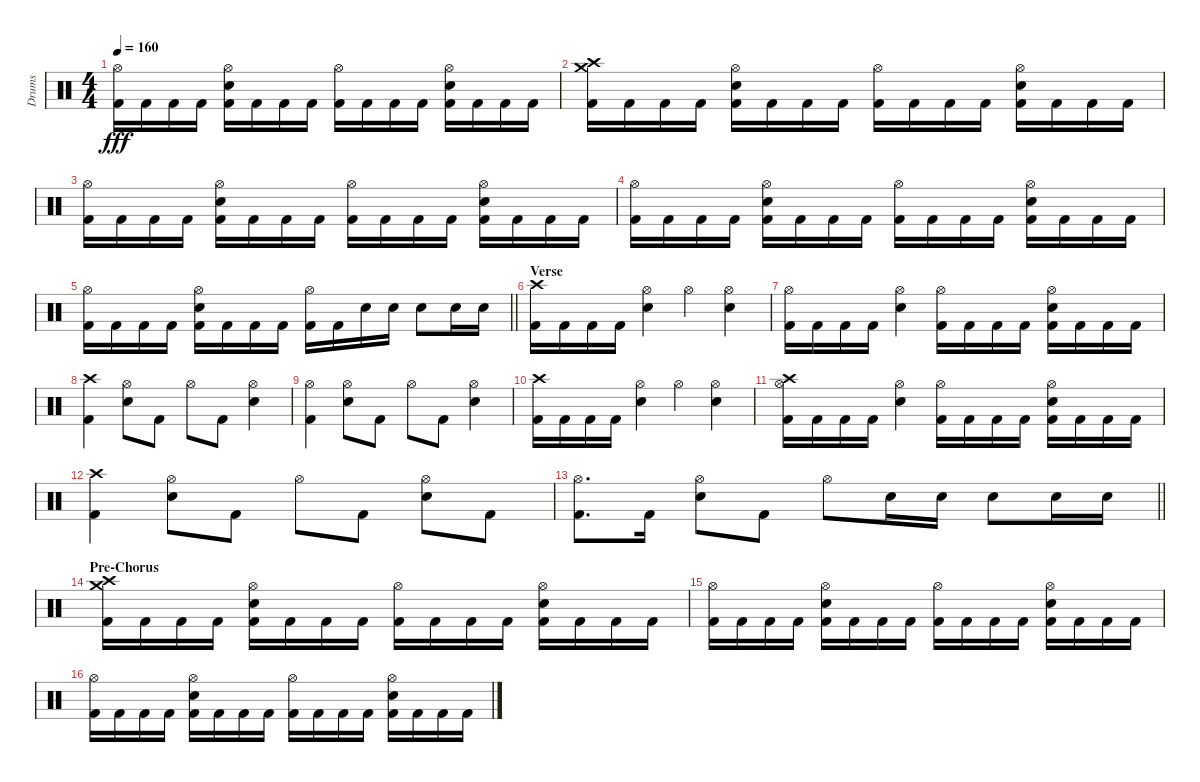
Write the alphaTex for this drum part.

\track ("Drums" "Drums") {instrument percussion}
\staff {score}
\articulation defaults
\ts (4 4)
\tempo 160
\clef neutral
\ks c
("Hi-Hat (open)" "Kick (hit) 2").16{dy fff} "Kick (hit) 2".16 "Kick (hit) 2".16 "Kick (hit) 2".16 ("Snare (hit) 2" "Hi-Hat (open)" "Kick (hit) 2").16 "Kick (hit) 2".16 "Kick (hit) 2".16 "Kick (hit) 2".16 ("Hi-Hat (open)" "Kick (hit) 2").16 "Kick (hit) 2".16 "Kick (hit) 2".16 "Kick (hit) 2".16 ("Snare (hit) 2" "Hi-Hat (open)" "Kick (hit) 2").16 "Kick (hit) 2".16 "Kick (hit) 2".16 "Kick (hit) 2".16 |
("Crash high (hit)" "Crash medium (hit)" "Kick (hit) 2").16 "Kick (hit) 2".16 "Kick (hit) 2".16 "Kick (hit) 2".16 ("Snare (hit) 2" "Hi-Hat (open)" "Kick (hit) 2").16 "Kick (hit) 2".16 "Kick (hit) 2".16 "Kick (hit) 2".16 ("Hi-Hat (open)" "Kick (hit) 2").16 "Kick (hit) 2".16 "Kick (hit) 2".16 "Kick (hit) 2".16 ("Snare (hit) 2" "Hi-Hat (open)" "Kick (hit) 2").16 "Kick (hit) 2".16 "Kick (hit) 2".16 "Kick (hit) 2".16 |
("Hi-Hat (open)" "Kick (hit) 2").16 "Kick (hit) 2".16 "Kick (hit) 2".16 "Kick (hit) 2".16 ("Snare (hit) 2" "Hi-Hat (open)" "Kick (hit) 2").16 "Kick (hit) 2".16 "Kick (hit) 2".16 "Kick (hit) 2".16 ("Hi-Hat (open)" "Kick (hit) 2").16 "Kick (hit) 2".16 "Kick (hit) 2".16 "Kick (hit) 2".16 ("Snare (hit) 2" "Hi-Hat (open)" "Kick (hit) 2").16 "Kick (hit) 2".16 "Kick (hit) 2".16 "Kick (hit) 2".16 |
("Hi-Hat (open)" "Kick (hit) 2").16 "Kick (hit) 2".16 "Kick (hit) 2".16 "Kick (hit) 2".16 ("Snare (hit) 2" "Hi-Hat (open)" "Kick (hit) 2").16 "Kick (hit) 2".16 "Kick (hit) 2".16 "Kick (hit) 2".16 ("Hi-Hat (open)" "Kick (hit) 2").16 "Kick (hit) 2".16 "Kick (hit) 2".16 "Kick (hit) 2".16 ("Snare (hit) 2" "Hi-Hat (open)" "Kick (hit) 2").16 "Kick (hit) 2".16 "Kick (hit) 2".16 "Kick (hit) 2".16 |
\barLineRight lightlight
("Hi-Hat (open)" "Kick (hit) 2").16 "Kick (hit) 2".16 "Kick (hit) 2".16 "Kick (hit) 2".16 ("Snare (hit) 2" "Hi-Hat (open)" "Kick (hit) 2").16 "Kick (hit) 2".16 "Kick (hit) 2".16 "Kick (hit) 2".16 ("Hi-Hat (open)" "Kick (hit) 2").16 "Kick (hit) 2".16 "Snare (hit) 2".16 "Snare (hit) 2".16 "Snare (hit) 2".8 "Snare (hit) 2".16 "Snare (hit) 2".16 |
\section ("" "Verse")
("Crash high (hit)" "Kick (hit) 2").16 "Kick (hit) 2".16 "Kick (hit) 2".16 "Kick (hit) 2".16 ("Snare (hit) 2" "Hi-Hat (open)").4 "Hi-Hat (open)".4 ("Snare (hit) 2" "Hi-Hat (open)").4 |
("Hi-Hat (open)" "Kick (hit) 2").16 "Kick (hit) 2".16 "Kick (hit) 2".16 "Kick (hit) 2".16 ("Snare (hit) 2" "Hi-Hat (open)").4 ("Hi-Hat (open)" "Kick (hit) 2").16 "Kick (hit) 2".16 "Kick (hit) 2".16 "Kick (hit) 2".16 ("Snare (hit) 2" "Hi-Hat (open)" "Kick (hit) 2").16 "Kick (hit) 2".16 "Kick (hit) 2".16 "Kick (hit) 2".16 |
("Crash high (hit)" "Kick (hit) 2").4 ("Snare (hit) 2" "Hi-Hat (open)").8 "Kick (hit) 2".8 "Hi-Hat (open)".8 "Kick (hit) 2".8 ("Snare (hit) 2" "Hi-Hat (open)").4 |
("Hi-Hat (open)" "Kick (hit) 2").4 ("Snare (hit) 2" "Hi-Hat (open)").8 "Kick (hit) 2".8 "Hi-Hat (open)".8 "Kick (hit) 2".8 ("Snare (hit) 2" "Hi-Hat (open)").4 |
("Crash high (hit)" "Kick (hit) 2").16 "Kick (hit) 2".16 "Kick (hit) 2".16 "Kick (hit) 2".16 ("Snare (hit) 2" "Hi-Hat (open)").4 "Hi-Hat (open)".4 ("Snare (hit) 2" "Hi-Hat (open)").4 |
("Crash high (hit)" "Hi-Hat (open)" "Kick (hit) 2").16 "Kick (hit) 2".16 "Kick (hit) 2".16 "Kick (hit) 2".16 ("Snare (hit) 2" "Hi-Hat (open)").4 ("Hi-Hat (open)" "Kick (hit) 2").16 "Kick (hit) 2".16 "Kick (hit) 2".16 "Kick (hit) 2".16 ("Snare (hit) 2" "Hi-Hat (open)" "Kick (hit) 2").16 "Kick (hit) 2".16 "Kick (hit) 2".16 "Kick (hit) 2".16 |
("Crash high (hit)" "Kick (hit) 2").4 ("Snare (hit) 2" "Hi-Hat (open)").8 "Kick (hit) 2".8 "Hi-Hat (open)".8 "Kick (hit) 2".8 ("Snare (hit) 2" "Hi-Hat (open)").8 "Kick (hit) 2".8 |
\barLineRight lightlight
("Hi-Hat (open)" "Kick (hit) 2").8{d} "Kick (hit) 2".16 ("Snare (hit) 2" "Hi-Hat (open)").8 "Kick (hit) 2".8 "Hi-Hat (open)".8 "Snare (hit) 2".16 "Snare (hit) 2".16 "Snare (hit) 2".8 "Snare (hit) 2".16 "Snare (hit) 2".16 |
\section ("" "Pre-Chorus")
("Crash high (hit)" "Crash medium (hit)" "Kick (hit) 2").16 "Kick (hit) 2".16 "Kick (hit) 2".16 "Kick (hit) 2".16 ("Snare (hit) 2" "Hi-Hat (open)" "Kick (hit) 2").16 "Kick (hit) 2".16 "Kick (hit) 2".16 "Kick (hit) 2".16 ("Hi-Hat (open)" "Kick (hit) 2").16 "Kick (hit) 2".16 "Kick (hit) 2".16 "Kick (hit) 2".16 ("Snare (hit) 2" "Hi-Hat (open)" "Kick (hit) 2").16 "Kick (hit) 2".16 "Kick (hit) 2".16 "Kick (hit) 2".16 |
("Hi-Hat (open)" "Kick (hit) 2").16 "Kick (hit) 2".16 "Kick (hit) 2".16 "Kick (hit) 2".16 ("Snare (hit) 2" "Hi-Hat (open)" "Kick (hit) 2").16 "Kick (hit) 2".16 "Kick (hit) 2".16 "Kick (hit) 2".16 ("Hi-Hat (open)" "Kick (hit) 2").16 "Kick (hit) 2".16 "Kick (hit) 2".16 "Kick (hit) 2".16 ("Snare (hit) 2" "Hi-Hat (open)" "Kick (hit) 2").16 "Kick (hit) 2".16 "Kick (hit) 2".16 "Kick (hit) 2".16 |
("Hi-Hat (open)" "Kick (hit) 2").16 "Kick (hit) 2".16 "Kick (hit) 2".16 "Kick (hit) 2".16 ("Snare (hit) 2" "Hi-Hat (open)" "Kick (hit) 2").16 "Kick (hit) 2".16 "Kick (hit) 2".16 "Kick (hit) 2".16 ("Hi-Hat (open)" "Kick (hit) 2").16 "Kick (hit) 2".16 "Kick (hit) 2".16 "Kick (hit) 2".16 ("Snare (hit) 2" "Hi-Hat (open)" "Kick (hit) 2").16 "Kick (hit) 2".16 "Kick (hit) 2".16 "Kick (hit) 2".16
